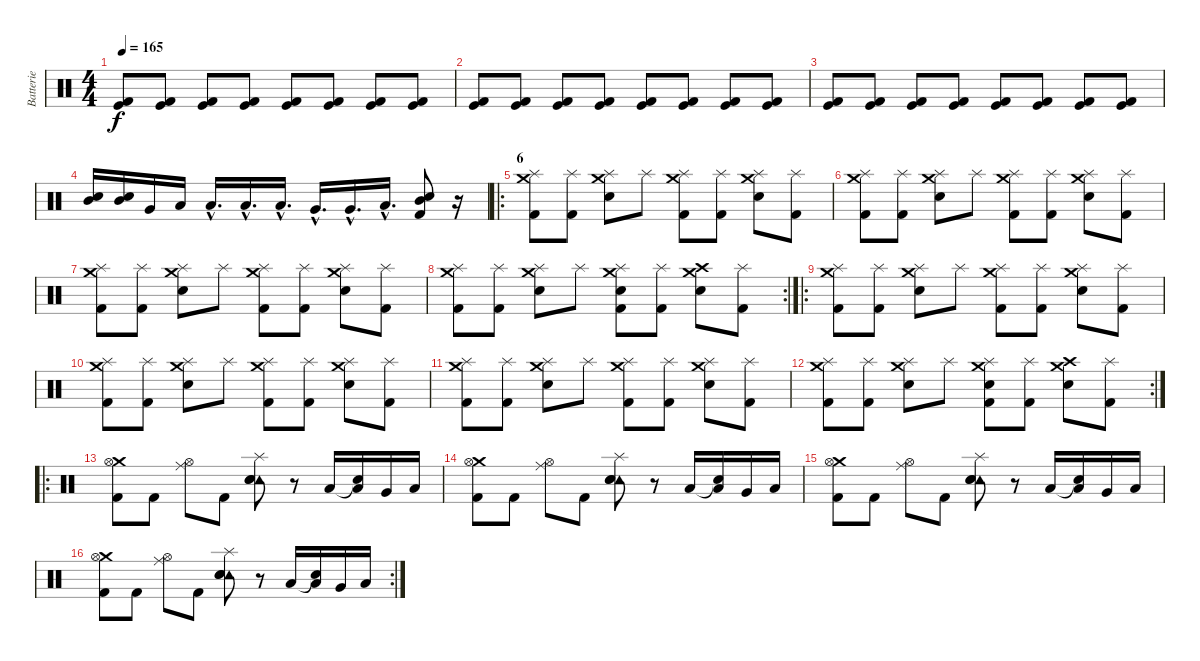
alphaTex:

\track ("Batterie" "Batterie") {instrument percussion}
\staff {score}
\articulation defaults
\ts (4 4)
\tempo 165
\clef neutral
\ks c
("Kick (hit) 2" "Kick (hit)").8{dy f volume 13} ("Kick (hit) 2" "Kick (hit)").8 ("Kick (hit) 2" "Kick (hit)").8 ("Kick (hit) 2" "Kick (hit)").8 ("Kick (hit) 2" "Kick (hit)").8 ("Kick (hit) 2" "Kick (hit)").8 ("Kick (hit) 2" "Kick (hit)").8 ("Kick (hit) 2" "Kick (hit)").8 |
("Kick (hit) 2" "Kick (hit)").8 ("Kick (hit) 2" "Kick (hit)").8 ("Kick (hit) 2" "Kick (hit)").8 ("Kick (hit) 2" "Kick (hit)").8 ("Kick (hit) 2" "Kick (hit)").8 ("Kick (hit) 2" "Kick (hit)").8 ("Kick (hit) 2" "Kick (hit)").8 ("Kick (hit) 2" "Kick (hit)").8 |
("Kick (hit) 2" "Kick (hit)").8 ("Kick (hit) 2" "Kick (hit)").8 ("Kick (hit) 2" "Kick (hit)").8 ("Kick (hit) 2" "Kick (hit)").8 ("Kick (hit) 2" "Kick (hit)").8 ("Kick (hit) 2" "Kick (hit)").8 ("Kick (hit) 2" "Kick (hit)").8 ("Kick (hit) 2" "Kick (hit)").8 |
("Snare (hit) 2" "Mid Tom (hit)").16 ("Snare (hit) 2" "Mid Tom (hit)").16 "Very Low Tom (hit)".16 "Low Floor Tom (hit)".16 "Low Floor Tom (hit)"{hac}.16{d} "Low Floor Tom (hit)"{hac}.16{d} "Low Floor Tom (hit)"{hac}.16{d} "Very Low Tom (hit)"{hac}.16{d} "Very Low Tom (hit)"{hac}.16{d} "Low Tom (hit)"{hac}.16{d} ("Snare (hit) 2" "Mid Tom (hit)" "Kick (hit) 2").8 r.16 |
\ro
\section ("" "6")
("Splash (hit)" "Crash medium (hit)" "Kick (hit) 2").8 ("Splash (hit)" "Kick (hit) 2").8 ("Splash (hit)" "Electric Snare (hit)" "Crash medium (hit)").8 "Splash (hit)".8 ("Splash (hit)" "Crash medium (hit)" "Kick (hit) 2").8 ("Splash (hit)" "Kick (hit) 2").8 ("Splash (hit)" "Electric Snare (hit)" "Crash medium (hit)").8 ("Splash (hit)" "Kick (hit) 2").8 |
("Splash (hit)" "Crash medium (hit)" "Kick (hit) 2").8 ("Splash (hit)" "Kick (hit) 2").8 ("Splash (hit)" "Electric Snare (hit)" "Crash medium (hit)").8 "Splash (hit)".8 ("Splash (hit)" "Crash medium (hit)" "Kick (hit) 2").8 ("Splash (hit)" "Kick (hit) 2").8 ("Splash (hit)" "Electric Snare (hit)" "Crash medium (hit)").8 ("Splash (hit)" "Kick (hit) 2").8 |
("Splash (hit)" "Crash medium (hit)" "Kick (hit) 2").8 ("Splash (hit)" "Kick (hit) 2").8 ("Splash (hit)" "Electric Snare (hit)" "Crash medium (hit)").8 "Splash (hit)".8 ("Splash (hit)" "Crash medium (hit)" "Kick (hit) 2").8 ("Splash (hit)" "Kick (hit) 2").8 ("Splash (hit)" "Electric Snare (hit)" "Crash medium (hit)").8 ("Splash (hit)" "Kick (hit) 2").8 |
\rc 2
("Splash (hit)" "Crash medium (hit)" "Kick (hit) 2").8 ("Splash (hit)" "Kick (hit) 2").8 ("Splash (hit)" "Electric Snare (hit)" "Crash medium (hit)").8 "Splash (hit)".8 ("Splash (hit)" "Electric Snare (hit)" "Crash medium (hit)" "Kick (hit) 2").8 ("Splash (hit)" "Kick (hit) 2").8 ("Crash high (hit)" "Electric Snare (hit)" "Crash medium (hit)").8 ("Splash (hit)" "Kick (hit) 2").8 |
\ro
("Splash (hit)" "Crash medium (hit)" "Kick (hit) 2").8 ("Splash (hit)" "Kick (hit) 2").8 ("Splash (hit)" "Electric Snare (hit)" "Crash medium (hit)").8 "Splash (hit)".8 ("Splash (hit)" "Crash medium (hit)" "Kick (hit) 2").8 ("Splash (hit)" "Kick (hit) 2").8 ("Splash (hit)" "Electric Snare (hit)" "Crash medium (hit)").8 ("Splash (hit)" "Kick (hit) 2").8 |
("Splash (hit)" "Crash medium (hit)" "Kick (hit) 2").8 ("Splash (hit)" "Kick (hit) 2").8 ("Splash (hit)" "Electric Snare (hit)" "Crash medium (hit)").8 "Splash (hit)".8 ("Splash (hit)" "Crash medium (hit)" "Kick (hit) 2").8 ("Splash (hit)" "Kick (hit) 2").8 ("Splash (hit)" "Electric Snare (hit)" "Crash medium (hit)").8 ("Splash (hit)" "Kick (hit) 2").8 |
("Splash (hit)" "Crash medium (hit)" "Kick (hit) 2").8 ("Splash (hit)" "Kick (hit) 2").8 ("Splash (hit)" "Electric Snare (hit)" "Crash medium (hit)").8 "Splash (hit)".8 ("Splash (hit)" "Crash medium (hit)" "Kick (hit) 2").8 ("Splash (hit)" "Kick (hit) 2").8 ("Splash (hit)" "Electric Snare (hit)" "Crash medium (hit)").8 ("Splash (hit)" "Kick (hit) 2").8 |
\rc 2
("Splash (hit)" "Crash medium (hit)" "Kick (hit) 2").8 ("Splash (hit)" "Kick (hit) 2").8 ("Splash (hit)" "Electric Snare (hit)" "Crash medium (hit)").8 "Splash (hit)".8 ("Splash (hit)" "Electric Snare (hit)" "Crash medium (hit)" "Kick (hit) 2").8 ("Splash (hit)" "Kick (hit) 2").8 ("Crash high (hit)" "Electric Snare (hit)" "Crash medium (hit)").8 ("Splash (hit)" "Kick (hit) 2").8 |
\ro
("Crash medium (hit)" "Hi-Hat (open)" "Kick (hit) 2").8{volume 15} "Kick (hit) 2".8 ("Ride (middle)" "Hi-Hat (open)").8 "Kick (hit) 2".8 ("Splash (hit)" "Tambourine (hit)" "Electric Snare (hit)" "Snare (hit) 2").8 r.8 "Low Tom (hit)".16 ("Snare (hit)"{t} "Low Tom (hit)").16 "Very Low Tom (hit)".16 "Low Floor Tom (hit)".16 |
("Crash medium (hit)" "Hi-Hat (open)" "Kick (hit) 2").8 "Kick (hit) 2".8 ("Ride (middle)" "Hi-Hat (open)").8 "Kick (hit) 2".8 ("Splash (hit)" "Tambourine (hit)" "Electric Snare (hit)" "Snare (hit) 2").8 r.8 "Low Tom (hit)".16 ("Snare (hit)"{t} "Low Tom (hit)").16 "Very Low Tom (hit)".16 "Low Floor Tom (hit)".16 |
("Crash medium (hit)" "Hi-Hat (open)" "Kick (hit) 2").8 "Kick (hit) 2".8 ("Ride (middle)" "Hi-Hat (open)").8 "Kick (hit) 2".8 ("Splash (hit)" "Tambourine (hit)" "Electric Snare (hit)" "Snare (hit) 2").8 r.8 "Low Tom (hit)".16 ("Snare (hit)"{t} "Low Tom (hit)").16 "Very Low Tom (hit)".16 "Low Floor Tom (hit)".16 |
\rc 2
("Crash medium (hit)" "Hi-Hat (open)" "Kick (hit) 2").8 "Kick (hit) 2".8 ("Ride (middle)" "Hi-Hat (open)").8 "Kick (hit) 2".8 ("Splash (hit)" "Tambourine (hit)" "Electric Snare (hit)" "Snare (hit) 2").8 r.8 "Low Tom (hit)".16 ("Snare (hit)"{t} "Low Tom (hit)").16 "Very Low Tom (hit)".16 "Low Floor Tom (hit)".16
